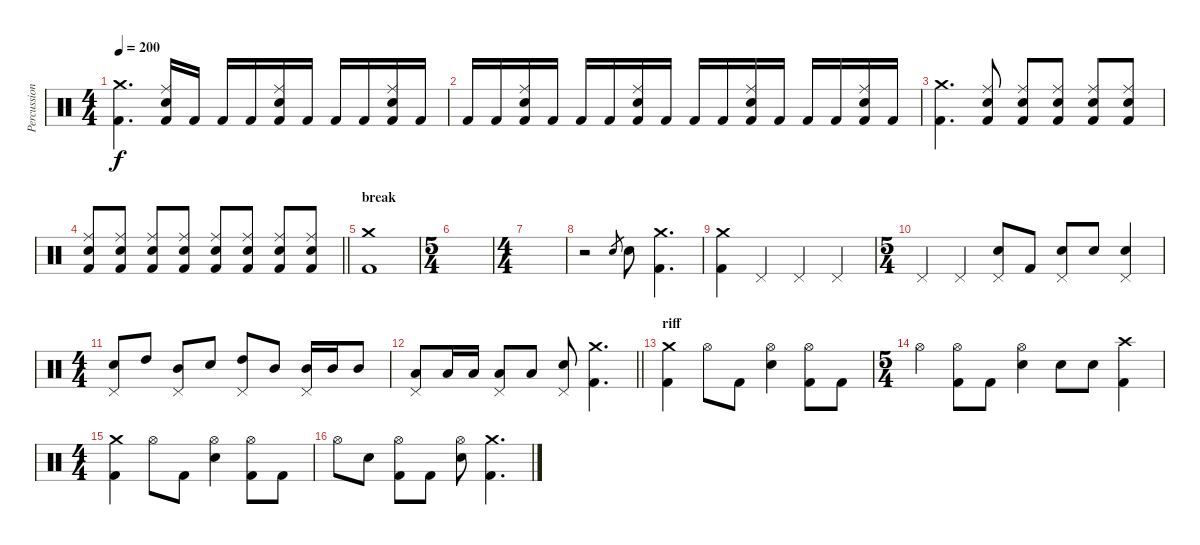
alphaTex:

\track ("Percussion" "Percussion") {instrument percussion}
\staff {score}
\articulation defaults
\ts (4 4)
\tempo 200
\clef neutral
\ks c
("Crash medium (hit)" "Kick (hit) 2").4{d dy f} ("Ride (middle)" "Electric Snare (hit)" "Kick (hit) 2").16 "Kick (hit) 2".16 "Kick (hit) 2".16 "Kick (hit) 2".16 ("Ride (middle)" "Electric Snare (hit)" "Kick (hit) 2").16 "Kick (hit) 2".16 "Kick (hit) 2".16 "Kick (hit) 2".16 ("Ride (middle)" "Electric Snare (hit)" "Kick (hit) 2").16 "Kick (hit) 2".16 |
"Kick (hit) 2".16 "Kick (hit) 2".16 ("Ride (middle)" "Electric Snare (hit)" "Kick (hit) 2").16 "Kick (hit) 2".16 "Kick (hit) 2".16 "Kick (hit) 2".16 ("Ride (middle)" "Electric Snare (hit)" "Kick (hit) 2").16 "Kick (hit) 2".16 "Kick (hit) 2".16 "Kick (hit) 2".16 ("Ride (middle)" "Electric Snare (hit)" "Kick (hit) 2").16 "Kick (hit) 2".16 "Kick (hit) 2".16 "Kick (hit) 2".16 ("Ride (middle)" "Electric Snare (hit)" "Kick (hit) 2").16 "Kick (hit) 2".16 |
("Crash medium (hit)" "Kick (hit) 2").4{d} ("Ride (middle)" "Electric Snare (hit)" "Kick (hit) 2").8 ("Ride (middle)" "Electric Snare (hit)" "Kick (hit) 2").8 ("Ride (middle)" "Electric Snare (hit)" "Kick (hit) 2").8 ("Ride (middle)" "Electric Snare (hit)" "Kick (hit) 2").8 ("Ride (middle)" "Electric Snare (hit)" "Kick (hit) 2").8 |
\barLineRight lightlight
("Ride (middle)" "Electric Snare (hit)" "Kick (hit) 2").8 ("Ride (middle)" "Electric Snare (hit)" "Kick (hit) 2").8 ("Ride (middle)" "Electric Snare (hit)" "Kick (hit) 2").8 ("Ride (middle)" "Electric Snare (hit)" "Kick (hit) 2").8 ("Ride (middle)" "Electric Snare (hit)" "Kick (hit) 2").8 ("Ride (middle)" "Electric Snare (hit)" "Kick (hit) 2").8 ("Ride (middle)" "Electric Snare (hit)" "Kick (hit) 2").8 ("Ride (middle)" "Electric Snare (hit)" "Kick (hit) 2").8 |
\section ("" "break")
("Crash medium (hit)" "Kick (hit) 2").1 |
\ts (5 4)
|
\ts (4 4)
|
r.2 "Electric Snare (hit)".8{gr} "Electric Snare (hit)".8 ("Crash medium (hit)" "Kick (hit) 2").4{d} |
("Crash medium (hit)" "Kick (hit) 2").4 "Pedal Hi-Hat (hit)".4 "Pedal Hi-Hat (hit)".4 "Pedal Hi-Hat (hit)".4 |
\ts (5 4)
"Pedal Hi-Hat (hit)".4 "Pedal Hi-Hat (hit)".4 ("Pedal Hi-Hat (hit)" "Electric Snare (hit)").8 "Kick (hit) 2".8 ("Pedal Hi-Hat (hit)" "Electric Snare (hit)").8 "Electric Snare (hit)".8 ("Pedal Hi-Hat (hit)" "Electric Snare (hit)").4 |
\ts (4 4)
("Pedal Hi-Hat (hit)" "Electric Snare (hit)").8 "High Tom (hit)".8 ("Pedal Hi-Hat (hit)" "Mid Tom (hit)").8 "Electric Snare (hit)".8 ("Pedal Hi-Hat (hit)" "High Tom (hit)").8 "Mid Tom (hit)".8 ("Pedal Hi-Hat (hit)" "Mid Tom (hit)").16 "Mid Tom (hit)".16 "Mid Tom (hit)".8 |
\barLineRight lightlight
("Pedal Hi-Hat (hit)" "Low Tom (hit)").8 "Low Tom (hit)".16 "Low Tom (hit)".16 ("Pedal Hi-Hat (hit)" "Low Tom (hit)").8 "Low Tom (hit)".8 ("Pedal Hi-Hat (hit)" "Electric Snare (hit)").8 ("Crash medium (hit)" "Kick (hit) 2").4{d} |
\section ("" "riff")
("Crash medium (hit)" "Kick (hit) 2").4 "Hi-Hat (open)".8 "Kick (hit) 2".8 ("Hi-Hat (open)" "Electric Snare (hit)").4 ("Hi-Hat (open)" "Kick (hit) 2").8 "Kick (hit) 2".8 |
\ts (5 4)
"Hi-Hat (open)".4 ("Hi-Hat (open)" "Kick (hit) 2").8 "Kick (hit) 2".8 ("Hi-Hat (open)" "Electric Snare (hit)").4 "Electric Snare (hit)".8 "Electric Snare (hit)".8 ("Crash high (hit)" "Kick (hit) 2").4 |
\ts (4 4)
("Crash medium (hit)" "Kick (hit) 2").4 "Hi-Hat (open)".8 "Kick (hit) 2".8 ("Hi-Hat (open)" "Electric Snare (hit)").4 ("Hi-Hat (open)" "Kick (hit) 2").8 "Kick (hit) 2".8 |
"Hi-Hat (open)".8 "Electric Snare (hit)".8 ("Hi-Hat (open)" "Kick (hit) 2").8 "Kick (hit) 2".8 ("Hi-Hat (open)" "Electric Snare (hit)").8 ("Crash medium (hit)" "Kick (hit) 2").4{d}
